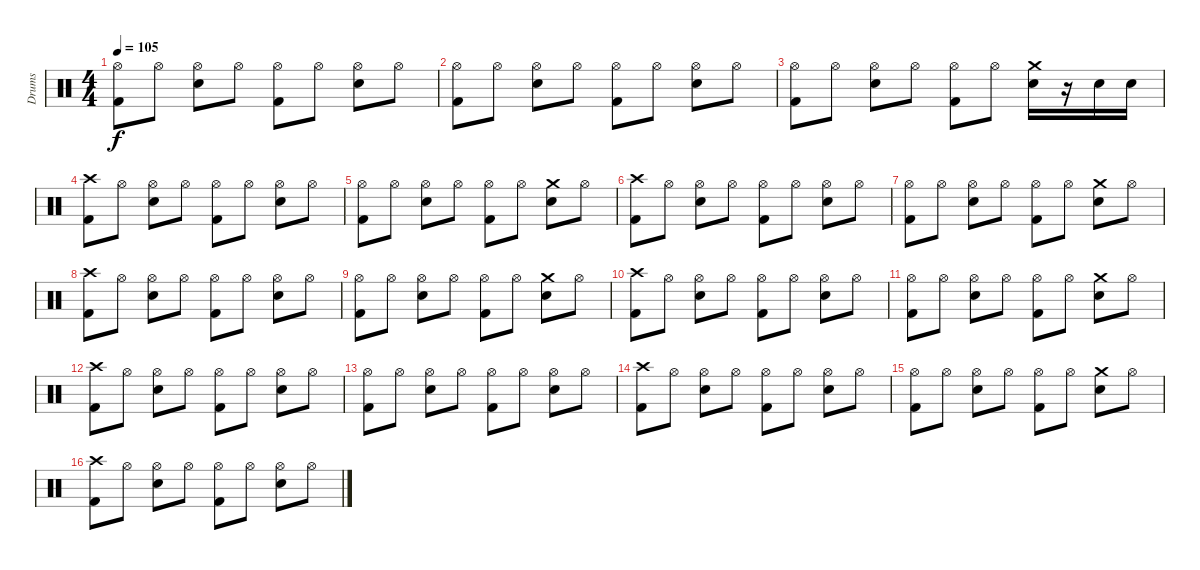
\track ("Drums" "Drums") {instrument percussion}
\staff {score}
\articulation defaults
\ts (4 4)
\tempo 105
\clef neutral
\ks c
("Hi-Hat (open)" "Kick (hit) 2").8{dy f} "Hi-Hat (open)".8 ("Hi-Hat (open)" "Snare (hit) 2").8 "Hi-Hat (open)".8 ("Hi-Hat (open)" "Kick (hit) 2").8 "Hi-Hat (open)".8 ("Hi-Hat (open)" "Snare (hit) 2").8 "Hi-Hat (open)".8 |
("Hi-Hat (open)" "Kick (hit) 2").8 "Hi-Hat (open)".8 ("Hi-Hat (open)" "Snare (hit) 2").8 "Hi-Hat (open)".8 ("Hi-Hat (open)" "Kick (hit) 2").8 "Hi-Hat (open)".8 ("Hi-Hat (open)" "Snare (hit) 2").8 "Hi-Hat (open)".8 |
("Hi-Hat (open)" "Kick (hit) 2").8 "Hi-Hat (open)".8 ("Hi-Hat (open)" "Snare (hit) 2").8 "Hi-Hat (open)".8 ("Hi-Hat (open)" "Kick (hit) 2").8 "Hi-Hat (open)".8 ("Crash medium (hit)" "Snare (hit) 2").16 r.16 "Snare (hit) 2".16 "Snare (hit) 2".16 |
("Crash high (hit)" "Kick (hit) 2").8 "Hi-Hat (open)".8 ("Hi-Hat (open)" "Snare (hit) 2").8 "Hi-Hat (open)".8 ("Hi-Hat (open)" "Kick (hit) 2").8 "Hi-Hat (open)".8 ("Hi-Hat (open)" "Snare (hit) 2").8 "Hi-Hat (open)".8 |
("Hi-Hat (open)" "Kick (hit) 2").8 "Hi-Hat (open)".8 ("Hi-Hat (open)" "Snare (hit) 2").8 "Hi-Hat (open)".8 ("Hi-Hat (open)" "Kick (hit) 2").8 "Hi-Hat (open)".8 ("Crash medium (hit)" "Snare (hit) 2").8 "Hi-Hat (open)".8 |
("Crash high (hit)" "Kick (hit) 2").8 "Hi-Hat (open)".8 ("Hi-Hat (open)" "Snare (hit) 2").8 "Hi-Hat (open)".8 ("Hi-Hat (open)" "Kick (hit) 2").8 "Hi-Hat (open)".8 ("Hi-Hat (open)" "Snare (hit) 2").8 "Hi-Hat (open)".8 |
("Hi-Hat (open)" "Kick (hit) 2").8 "Hi-Hat (open)".8 ("Hi-Hat (open)" "Snare (hit) 2").8 "Hi-Hat (open)".8 ("Hi-Hat (open)" "Kick (hit) 2").8 "Hi-Hat (open)".8 ("Crash medium (hit)" "Snare (hit) 2").8 "Hi-Hat (open)".8 |
("Crash high (hit)" "Kick (hit) 2").8 "Hi-Hat (open)".8 ("Hi-Hat (open)" "Snare (hit) 2").8 "Hi-Hat (open)".8 ("Hi-Hat (open)" "Kick (hit) 2").8 "Hi-Hat (open)".8 ("Hi-Hat (open)" "Snare (hit) 2").8 "Hi-Hat (open)".8 |
("Hi-Hat (open)" "Kick (hit) 2").8 "Hi-Hat (open)".8 ("Hi-Hat (open)" "Snare (hit) 2").8 "Hi-Hat (open)".8 ("Hi-Hat (open)" "Kick (hit) 2").8 "Hi-Hat (open)".8 ("Crash medium (hit)" "Snare (hit) 2").8 "Hi-Hat (open)".8 |
("Crash high (hit)" "Kick (hit) 2").8 "Hi-Hat (open)".8 ("Hi-Hat (open)" "Snare (hit) 2").8 "Hi-Hat (open)".8 ("Hi-Hat (open)" "Kick (hit) 2").8 "Hi-Hat (open)".8 ("Hi-Hat (open)" "Snare (hit) 2").8 "Hi-Hat (open)".8 |
("Hi-Hat (open)" "Kick (hit) 2").8 "Hi-Hat (open)".8 ("Hi-Hat (open)" "Snare (hit) 2").8 "Hi-Hat (open)".8 ("Hi-Hat (open)" "Kick (hit) 2").8 "Hi-Hat (open)".8 ("Crash medium (hit)" "Snare (hit) 2").8 "Hi-Hat (open)".8 |
("Crash high (hit)" "Kick (hit) 2").8 "Hi-Hat (open)".8 ("Hi-Hat (open)" "Snare (hit) 2").8 "Hi-Hat (open)".8 ("Hi-Hat (open)" "Kick (hit) 2").8 "Hi-Hat (open)".8 ("Hi-Hat (open)" "Snare (hit) 2").8 "Hi-Hat (open)".8 |
("Hi-Hat (open)" "Kick (hit) 2").8 "Hi-Hat (open)".8 ("Hi-Hat (open)" "Snare (hit) 2").8 "Hi-Hat (open)".8 ("Hi-Hat (open)" "Kick (hit) 2").8 "Hi-Hat (open)".8 ("Hi-Hat (open)" "Snare (hit) 2").8 "Hi-Hat (open)".8 |
("Crash high (hit)" "Kick (hit) 2").8 "Hi-Hat (open)".8 ("Hi-Hat (open)" "Snare (hit) 2").8 "Hi-Hat (open)".8 ("Hi-Hat (open)" "Kick (hit) 2").8 "Hi-Hat (open)".8 ("Hi-Hat (open)" "Snare (hit) 2").8 "Hi-Hat (open)".8 |
("Hi-Hat (open)" "Kick (hit) 2").8 "Hi-Hat (open)".8 ("Hi-Hat (open)" "Snare (hit) 2").8 "Hi-Hat (open)".8 ("Hi-Hat (open)" "Kick (hit) 2").8 "Hi-Hat (open)".8 ("Crash medium (hit)" "Snare (hit) 2").8 "Hi-Hat (open)".8 |
("Crash high (hit)" "Kick (hit) 2").8 "Hi-Hat (open)".8 ("Hi-Hat (open)" "Snare (hit) 2").8 "Hi-Hat (open)".8 ("Hi-Hat (open)" "Kick (hit) 2").8 "Hi-Hat (open)".8 ("Hi-Hat (open)" "Snare (hit) 2").8 "Hi-Hat (open)".8
